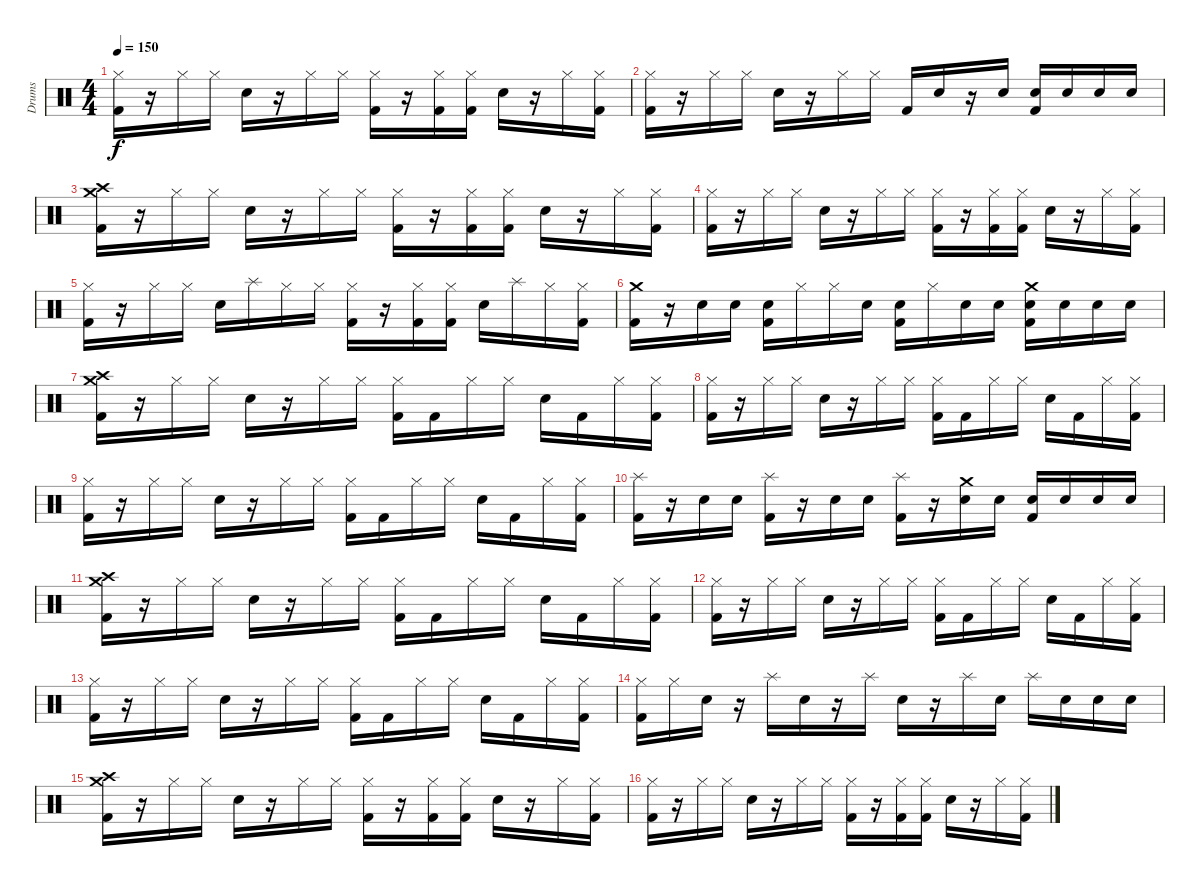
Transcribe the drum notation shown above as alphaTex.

\track ("Drums" "Drums") {instrument percussion}
\staff {score}
\articulation defaults
\ts (4 4)
\tempo 150
\clef neutral
\ks c
("Hi-Hat (closed)" "Kick (hit) 2").16{dy f} r.16 "Hi-Hat (closed)".16 "Hi-Hat (closed)".16 "Snare (hit) 2".16 r.16 "Hi-Hat (closed)".16 "Hi-Hat (closed)".16 ("Hi-Hat (closed)" "Kick (hit) 2").16 r.16 ("Hi-Hat (closed)" "Kick (hit) 2").16 ("Hi-Hat (closed)" "Kick (hit) 2").16 "Snare (hit) 2".16 r.16 "Hi-Hat (closed)".16 ("Hi-Hat (closed)" "Kick (hit) 2").16 |
("Hi-Hat (closed)" "Kick (hit) 2").16 r.16 "Hi-Hat (closed)".16 "Hi-Hat (closed)".16 "Snare (hit) 2".16 r.16 "Hi-Hat (closed)".16 "Hi-Hat (closed)".16 "Kick (hit) 2".16 "Snare (hit) 2".16 r.16 "Snare (hit) 2".16 ("Snare (hit) 2" "Kick (hit) 2").16 "Snare (hit) 2".16 "Snare (hit) 2".16 "Snare (hit) 2".16 |
("Crash medium (hit)" "Crash high (hit)" "Kick (hit) 2").16 r.16 "Hi-Hat (closed)".16 "Hi-Hat (closed)".16 "Snare (hit) 2".16 r.16 "Hi-Hat (closed)".16 "Hi-Hat (closed)".16 ("Hi-Hat (closed)" "Kick (hit) 2").16 r.16 ("Hi-Hat (closed)" "Kick (hit) 2").16 ("Hi-Hat (closed)" "Kick (hit) 2").16 "Snare (hit) 2".16 r.16 "Hi-Hat (closed)".16 ("Hi-Hat (closed)" "Kick (hit) 2").16 |
("Hi-Hat (closed)" "Kick (hit) 2").16 r.16 "Hi-Hat (closed)".16 "Hi-Hat (closed)".16 "Snare (hit) 2".16 r.16 "Hi-Hat (closed)".16 "Hi-Hat (closed)".16 ("Hi-Hat (closed)" "Kick (hit) 2").16 r.16 ("Hi-Hat (closed)" "Kick (hit) 2").16 ("Hi-Hat (closed)" "Kick (hit) 2").16 "Snare (hit) 2".16 r.16 "Hi-Hat (closed)".16 ("Hi-Hat (closed)" "Kick (hit) 2").16 |
("Hi-Hat (closed)" "Kick (hit) 2").16 r.16 "Hi-Hat (closed)".16 "Hi-Hat (closed)".16 "Snare (hit) 2".16 "Splash (hit)".16 "Hi-Hat (closed)".16 "Hi-Hat (closed)".16 ("Hi-Hat (closed)" "Kick (hit) 2").16 r.16 ("Hi-Hat (closed)" "Kick (hit) 2").16 ("Hi-Hat (closed)" "Kick (hit) 2").16 "Snare (hit) 2".16 "Splash (hit)".16 "Hi-Hat (closed)".16 ("Hi-Hat (closed)" "Kick (hit) 2").16 |
("Crash medium (hit)" "Kick (hit) 2").16 r.16 "Snare (hit) 2".16 "Snare (hit) 2".16 ("Snare (hit) 2" "Kick (hit) 2").16 "Hi-Hat (closed)".16 "Hi-Hat (closed)".16 "Snare (hit) 2".16 ("Snare (hit) 2" "Kick (hit) 2").16 "Hi-Hat (closed)".16 "Snare (hit) 2".16 "Snare (hit) 2".16 ("Crash medium (hit)" "Snare (hit) 2" "Kick (hit) 2").16 "Snare (hit) 2".16 "Snare (hit) 2".16 "Snare (hit) 2".16 |
("Crash medium (hit)" "Crash high (hit)" "Kick (hit) 2").16 r.16 "Hi-Hat (closed)".16 "Hi-Hat (closed)".16 "Snare (hit) 2".16 r.16 "Hi-Hat (closed)".16 "Hi-Hat (closed)".16 ("Hi-Hat (closed)" "Kick (hit) 2").16 "Kick (hit) 2".16 "Hi-Hat (closed)".16 "Hi-Hat (closed)".16 "Snare (hit) 2".16 "Kick (hit) 2".16 "Hi-Hat (closed)".16 ("Hi-Hat (closed)" "Kick (hit) 2").16 |
("Hi-Hat (closed)" "Kick (hit) 2").16 r.16 "Hi-Hat (closed)".16 "Hi-Hat (closed)".16 "Snare (hit) 2".16 r.16 "Hi-Hat (closed)".16 "Hi-Hat (closed)".16 ("Hi-Hat (closed)" "Kick (hit) 2").16 "Kick (hit) 2".16 "Hi-Hat (closed)".16 "Hi-Hat (closed)".16 "Snare (hit) 2".16 "Kick (hit) 2".16 "Hi-Hat (closed)".16 ("Hi-Hat (closed)" "Kick (hit) 2").16 |
("Hi-Hat (closed)" "Kick (hit) 2").16 r.16 "Hi-Hat (closed)".16 "Hi-Hat (closed)".16 "Snare (hit) 2".16 r.16 "Hi-Hat (closed)".16 "Hi-Hat (closed)".16 ("Hi-Hat (closed)" "Kick (hit) 2").16 "Kick (hit) 2".16 "Hi-Hat (closed)".16 "Hi-Hat (closed)".16 "Snare (hit) 2".16 "Kick (hit) 2".16 "Hi-Hat (closed)".16 ("Hi-Hat (closed)" "Kick (hit) 2").16 |
("Splash (hit)" "Kick (hit) 2").16 r.16 "Snare (hit) 2".16 "Snare (hit) 2".16 ("Splash (hit)" "Kick (hit) 2").16 r.16 "Snare (hit) 2".16 "Snare (hit) 2".16 ("Splash (hit)" "Kick (hit) 2").16 r.16 ("Crash medium (hit)" "Snare (hit) 2").16 "Snare (hit) 2".16 ("Snare (hit) 2" "Kick (hit) 2").16 "Snare (hit) 2".16 "Snare (hit) 2".16 "Snare (hit) 2".16 |
("Crash medium (hit)" "Crash high (hit)" "Kick (hit) 2").16 r.16 "Hi-Hat (closed)".16 "Hi-Hat (closed)".16 "Snare (hit) 2".16 r.16 "Hi-Hat (closed)".16 "Hi-Hat (closed)".16 ("Hi-Hat (closed)" "Kick (hit) 2").16 "Kick (hit) 2".16 "Hi-Hat (closed)".16 "Hi-Hat (closed)".16 "Snare (hit) 2".16 "Kick (hit) 2".16 "Hi-Hat (closed)".16 ("Hi-Hat (closed)" "Kick (hit) 2").16 |
("Hi-Hat (closed)" "Kick (hit) 2").16 r.16 "Hi-Hat (closed)".16 "Hi-Hat (closed)".16 "Snare (hit) 2".16 r.16 "Hi-Hat (closed)".16 "Hi-Hat (closed)".16 ("Hi-Hat (closed)" "Kick (hit) 2").16 "Kick (hit) 2".16 "Hi-Hat (closed)".16 "Hi-Hat (closed)".16 "Snare (hit) 2".16 "Kick (hit) 2".16 "Hi-Hat (closed)".16 ("Hi-Hat (closed)" "Kick (hit) 2").16 |
("Hi-Hat (closed)" "Kick (hit) 2").16 r.16 "Hi-Hat (closed)".16 "Hi-Hat (closed)".16 "Snare (hit) 2".16 r.16 "Hi-Hat (closed)".16 "Hi-Hat (closed)".16 ("Hi-Hat (closed)" "Kick (hit) 2").16 "Kick (hit) 2".16 "Hi-Hat (closed)".16 "Hi-Hat (closed)".16 "Snare (hit) 2".16 "Kick (hit) 2".16 "Hi-Hat (closed)".16 ("Hi-Hat (closed)" "Kick (hit) 2").16 |
("Hi-Hat (closed)" "Kick (hit) 2").16 "Hi-Hat (closed)".16 "Snare (hit) 2".16 r.16 "Splash (hit)".16 "Snare (hit) 2".16 r.16 "Splash (hit)".16 "Snare (hit) 2".16 r.16 "Splash (hit)".16 "Snare (hit) 2".16 "Splash (hit)".16 "Snare (hit) 2".16 "Snare (hit) 2".16 "Snare (hit) 2".16 |
("Crash medium (hit)" "Crash high (hit)" "Kick (hit) 2").16 r.16 "Hi-Hat (closed)".16 "Hi-Hat (closed)".16 "Snare (hit) 2".16 r.16 "Hi-Hat (closed)".16 "Hi-Hat (closed)".16 ("Hi-Hat (closed)" "Kick (hit) 2").16 r.16 ("Hi-Hat (closed)" "Kick (hit) 2").16 ("Hi-Hat (closed)" "Kick (hit) 2").16 "Snare (hit) 2".16 r.16 "Hi-Hat (closed)".16 ("Hi-Hat (closed)" "Kick (hit) 2").16 |
("Hi-Hat (closed)" "Kick (hit) 2").16 r.16 "Hi-Hat (closed)".16 "Hi-Hat (closed)".16 "Snare (hit) 2".16 r.16 "Hi-Hat (closed)".16 "Hi-Hat (closed)".16 ("Hi-Hat (closed)" "Kick (hit) 2").16 r.16 ("Hi-Hat (closed)" "Kick (hit) 2").16 ("Hi-Hat (closed)" "Kick (hit) 2").16 "Snare (hit) 2".16 r.16 "Hi-Hat (closed)".16 ("Hi-Hat (closed)" "Kick (hit) 2").16
